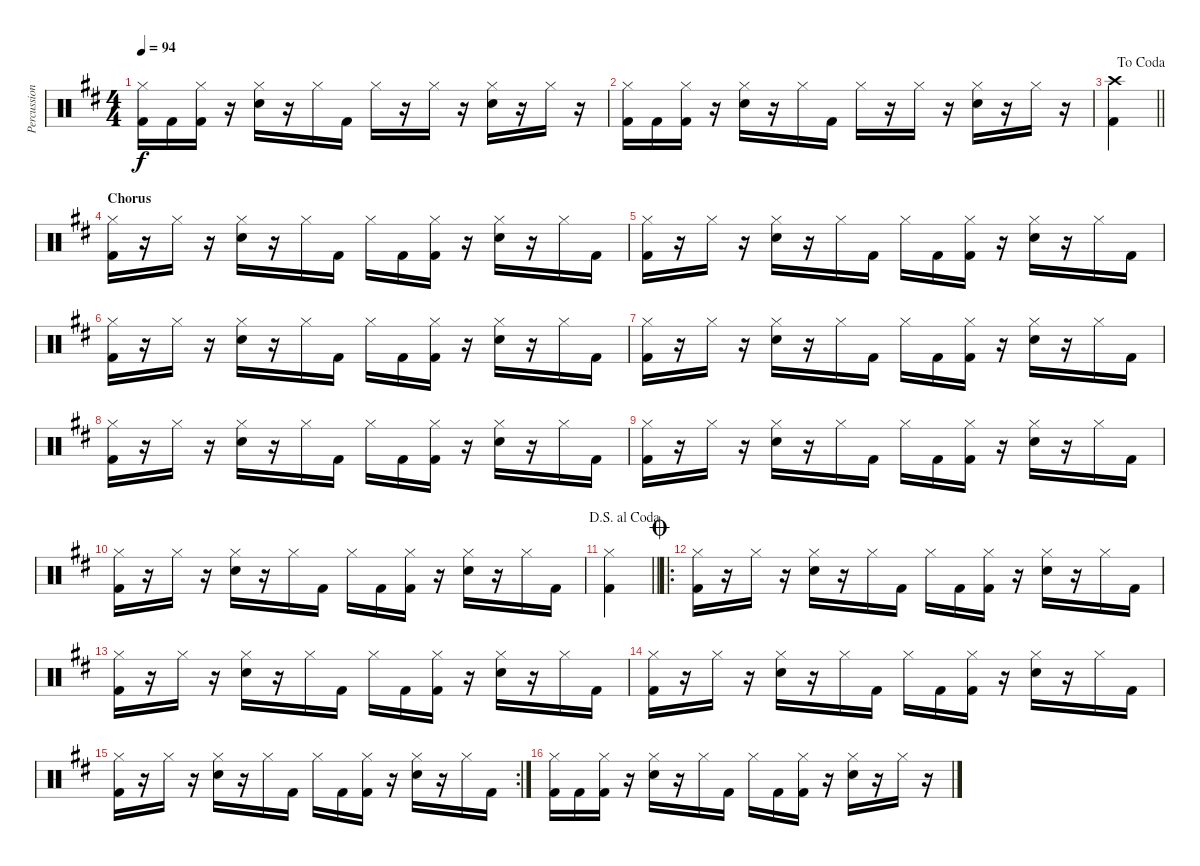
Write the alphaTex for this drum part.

\track ("Percussion" "Percussion") {instrument percussion}
\staff {score}
\articulation defaults
\ts (4 4)
\tempo 94
\clef neutral
\ks d
("Hi-Hat (closed)" "Kick (hit) 2").16{dy f} "Kick (hit) 2".16 ("Hi-Hat (closed)" "Kick (hit) 2").16 r.16 ("Hi-Hat (closed)" "Electric Snare (hit)").16 r.16 "Hi-Hat (closed)".16 "Kick (hit) 2".16 "Hi-Hat (closed)".16 r.16 "Hi-Hat (closed)".16 r.16 ("Hi-Hat (closed)" "Electric Snare (hit)").16 r.16 "Hi-Hat (closed)".16 r.16 |
("Hi-Hat (closed)" "Kick (hit) 2").16 "Kick (hit) 2".16 ("Hi-Hat (closed)" "Kick (hit) 2").16 r.16 ("Hi-Hat (closed)" "Electric Snare (hit)").16 r.16 "Hi-Hat (closed)".16 "Kick (hit) 2".16 "Hi-Hat (closed)".16 r.16 "Hi-Hat (closed)".16 r.16 ("Hi-Hat (closed)" "Electric Snare (hit)").16 r.16 "Hi-Hat (closed)".16 r.16 |
\jump dacoda
\barLineRight lightlight
("Crash high (hit)" "Kick (hit) 2").4 |
\section ("" "Chorus")
("Hi-Hat (closed)" "Kick (hit) 2").16 r.16 "Hi-Hat (closed)".16 r.16 ("Hi-Hat (closed)" "Electric Snare (hit)").16 r.16 "Hi-Hat (closed)".16 "Kick (hit) 2".16 "Hi-Hat (closed)".16 "Kick (hit) 2".16 ("Hi-Hat (closed)" "Kick (hit) 2").16 r.16 ("Hi-Hat (closed)" "Electric Snare (hit)").16 r.16 "Hi-Hat (closed)".16 "Kick (hit) 2".16 |
("Hi-Hat (closed)" "Kick (hit) 2").16 r.16 "Hi-Hat (closed)".16 r.16 ("Hi-Hat (closed)" "Electric Snare (hit)").16 r.16 "Hi-Hat (closed)".16 "Kick (hit) 2".16 "Hi-Hat (closed)".16 "Kick (hit) 2".16 ("Hi-Hat (closed)" "Kick (hit) 2").16 r.16 ("Hi-Hat (closed)" "Electric Snare (hit)").16 r.16 "Hi-Hat (closed)".16 "Kick (hit) 2".16 |
("Hi-Hat (closed)" "Kick (hit) 2").16 r.16 "Hi-Hat (closed)".16 r.16 ("Hi-Hat (closed)" "Electric Snare (hit)").16 r.16 "Hi-Hat (closed)".16 "Kick (hit) 2".16 "Hi-Hat (closed)".16 "Kick (hit) 2".16 ("Hi-Hat (closed)" "Kick (hit) 2").16 r.16 ("Hi-Hat (closed)" "Electric Snare (hit)").16 r.16 "Hi-Hat (closed)".16 "Kick (hit) 2".16 |
("Hi-Hat (closed)" "Kick (hit) 2").16 r.16 "Hi-Hat (closed)".16 r.16 ("Hi-Hat (closed)" "Electric Snare (hit)").16 r.16 "Hi-Hat (closed)".16 "Kick (hit) 2".16 "Hi-Hat (closed)".16 "Kick (hit) 2".16 ("Hi-Hat (closed)" "Kick (hit) 2").16 r.16 ("Hi-Hat (closed)" "Electric Snare (hit)").16 r.16 "Hi-Hat (closed)".16 "Kick (hit) 2".16 |
("Hi-Hat (closed)" "Kick (hit) 2").16 r.16 "Hi-Hat (closed)".16 r.16 ("Hi-Hat (closed)" "Electric Snare (hit)").16 r.16 "Hi-Hat (closed)".16 "Kick (hit) 2".16 "Hi-Hat (closed)".16 "Kick (hit) 2".16 ("Hi-Hat (closed)" "Kick (hit) 2").16 r.16 ("Hi-Hat (closed)" "Electric Snare (hit)").16 r.16 "Hi-Hat (closed)".16 "Kick (hit) 2".16 |
("Hi-Hat (closed)" "Kick (hit) 2").16 r.16 "Hi-Hat (closed)".16 r.16 ("Hi-Hat (closed)" "Electric Snare (hit)").16 r.16 "Hi-Hat (closed)".16 "Kick (hit) 2".16 "Hi-Hat (closed)".16 "Kick (hit) 2".16 ("Hi-Hat (closed)" "Kick (hit) 2").16 r.16 ("Hi-Hat (closed)" "Electric Snare (hit)").16 r.16 "Hi-Hat (closed)".16 "Kick (hit) 2".16 |
("Hi-Hat (closed)" "Kick (hit) 2").16 r.16 "Hi-Hat (closed)".16 r.16 ("Hi-Hat (closed)" "Electric Snare (hit)").16 r.16 "Hi-Hat (closed)".16 "Kick (hit) 2".16 "Hi-Hat (closed)".16 "Kick (hit) 2".16 ("Hi-Hat (closed)" "Kick (hit) 2").16 r.16 ("Hi-Hat (closed)" "Electric Snare (hit)").16 r.16 "Hi-Hat (closed)".16 "Kick (hit) 2".16 |
\jump dalsegnoalcoda
\barLineRight lightlight
("Hi-Hat (closed)" "Kick (hit) 2").4 |
\ro
\jump coda
("Hi-Hat (closed)" "Kick (hit) 2").16 r.16 "Hi-Hat (closed)".16 r.16 ("Hi-Hat (closed)" "Electric Snare (hit)").16 r.16 "Hi-Hat (closed)".16 "Kick (hit) 2".16 "Hi-Hat (closed)".16 "Kick (hit) 2".16 ("Hi-Hat (closed)" "Kick (hit) 2").16 r.16 ("Hi-Hat (closed)" "Electric Snare (hit)").16 r.16 "Hi-Hat (closed)".16 "Kick (hit) 2".16 |
("Hi-Hat (closed)" "Kick (hit) 2").16 r.16 "Hi-Hat (closed)".16 r.16 ("Hi-Hat (closed)" "Electric Snare (hit)").16 r.16 "Hi-Hat (closed)".16 "Kick (hit) 2".16 "Hi-Hat (closed)".16 "Kick (hit) 2".16 ("Hi-Hat (closed)" "Kick (hit) 2").16 r.16 ("Hi-Hat (closed)" "Electric Snare (hit)").16 r.16 "Hi-Hat (closed)".16 "Kick (hit) 2".16 |
("Hi-Hat (closed)" "Kick (hit) 2").16 r.16 "Hi-Hat (closed)".16 r.16 ("Hi-Hat (closed)" "Electric Snare (hit)").16 r.16 "Hi-Hat (closed)".16 "Kick (hit) 2".16 "Hi-Hat (closed)".16 "Kick (hit) 2".16 ("Hi-Hat (closed)" "Kick (hit) 2").16 r.16 ("Hi-Hat (closed)" "Electric Snare (hit)").16 r.16 "Hi-Hat (closed)".16 "Kick (hit) 2".16 |
\rc 2
("Hi-Hat (closed)" "Kick (hit) 2").16 r.16 "Hi-Hat (closed)".16 r.16 ("Hi-Hat (closed)" "Electric Snare (hit)").16 r.16 "Hi-Hat (closed)".16 "Kick (hit) 2".16 "Hi-Hat (closed)".16 "Kick (hit) 2".16 ("Hi-Hat (closed)" "Kick (hit) 2").16 r.16 ("Hi-Hat (closed)" "Electric Snare (hit)").16 r.16 "Hi-Hat (closed)".16 "Kick (hit) 2".16 |
("Hi-Hat (closed)" "Kick (hit) 2").16 "Kick (hit) 2".16 ("Hi-Hat (closed)" "Kick (hit) 2").16 r.16 ("Hi-Hat (closed)" "Electric Snare (hit)").16 r.16 "Hi-Hat (closed)".16 "Kick (hit) 2".16 "Hi-Hat (closed)".16 "Kick (hit) 2".16 ("Hi-Hat (closed)" "Kick (hit) 2").16 r.16 ("Hi-Hat (closed)" "Electric Snare (hit)").16 r.16 "Hi-Hat (closed)".16 r.16
